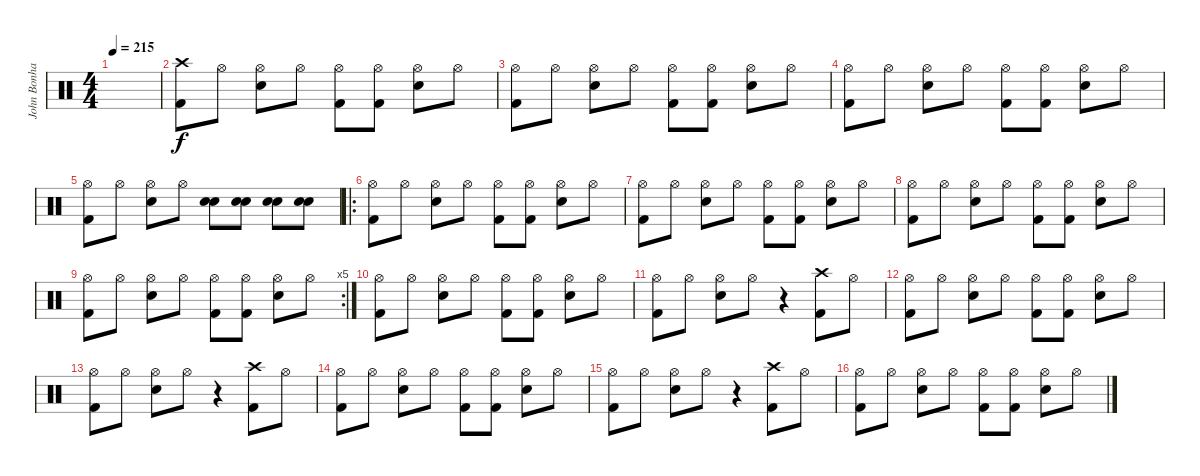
\track ("John Bonham" "John Bonha") {instrument percussion}
\staff {score}
\articulation defaults
\ts (4 4)
\tempo 215
\clef neutral
\ks c
|
("Crash high (hit)" "Kick (hit) 2").8 "Hi-Hat (open)".8 ("Hi-Hat (open)" "Snare (hit) 2").8 "Hi-Hat (open)".8 ("Hi-Hat (open)" "Kick (hit) 2").8 ("Hi-Hat (open)" "Kick (hit) 2").8 ("Hi-Hat (open)" "Snare (hit) 2").8 "Hi-Hat (open)".8 |
("Hi-Hat (open)" "Kick (hit) 2").8 "Hi-Hat (open)".8 ("Hi-Hat (open)" "Snare (hit) 2").8 "Hi-Hat (open)".8 ("Hi-Hat (open)" "Kick (hit) 2").8 ("Hi-Hat (open)" "Kick (hit) 2").8 ("Hi-Hat (open)" "Snare (hit) 2").8 "Hi-Hat (open)".8 |
("Hi-Hat (open)" "Kick (hit) 2").8 "Hi-Hat (open)".8 ("Hi-Hat (open)" "Snare (hit) 2").8 "Hi-Hat (open)".8 ("Hi-Hat (open)" "Kick (hit) 2").8 ("Hi-Hat (open)" "Kick (hit) 2").8 ("Hi-Hat (open)" "Snare (hit) 2").8 "Hi-Hat (open)".8 |
("Hi-Hat (open)" "Kick (hit) 2").8 "Hi-Hat (open)".8 ("Hi-Hat (open)" "Snare (hit) 2").8 "Hi-Hat (open)".8 ("Snare (hit) 2" "Electric Snare (hit)").8 ("Snare (hit) 2" "Electric Snare (hit)").8 ("Snare (hit) 2" "Electric Snare (hit)").8 ("Snare (hit) 2" "Electric Snare (hit)").8 |
\ro
("Hi-Hat (open)" "Kick (hit) 2").8 "Hi-Hat (open)".8 ("Hi-Hat (open)" "Snare (hit) 2").8 "Hi-Hat (open)".8 ("Hi-Hat (open)" "Kick (hit) 2").8 ("Hi-Hat (open)" "Kick (hit) 2").8 ("Hi-Hat (open)" "Snare (hit) 2").8 "Hi-Hat (open)".8 |
("Hi-Hat (open)" "Kick (hit) 2").8 "Hi-Hat (open)".8 ("Hi-Hat (open)" "Snare (hit) 2").8 "Hi-Hat (open)".8 ("Hi-Hat (open)" "Kick (hit) 2").8 ("Hi-Hat (open)" "Kick (hit) 2").8 ("Hi-Hat (open)" "Snare (hit) 2").8 "Hi-Hat (open)".8 |
("Hi-Hat (open)" "Kick (hit) 2").8 "Hi-Hat (open)".8 ("Hi-Hat (open)" "Snare (hit) 2").8 "Hi-Hat (open)".8 ("Hi-Hat (open)" "Kick (hit) 2").8 ("Hi-Hat (open)" "Kick (hit) 2").8 ("Hi-Hat (open)" "Snare (hit) 2").8 "Hi-Hat (open)".8 |
\rc 5
("Hi-Hat (open)" "Kick (hit) 2").8 "Hi-Hat (open)".8 ("Hi-Hat (open)" "Snare (hit) 2").8 "Hi-Hat (open)".8 ("Hi-Hat (open)" "Kick (hit) 2").8 ("Hi-Hat (open)" "Kick (hit) 2").8 ("Hi-Hat (open)" "Snare (hit) 2").8 "Hi-Hat (open)".8 |
("Hi-Hat (open)" "Kick (hit) 2").8 "Hi-Hat (open)".8 ("Hi-Hat (open)" "Snare (hit) 2").8 "Hi-Hat (open)".8 ("Hi-Hat (open)" "Kick (hit) 2").8 ("Hi-Hat (open)" "Kick (hit) 2").8 ("Hi-Hat (open)" "Snare (hit) 2").8 "Hi-Hat (open)".8 |
("Hi-Hat (open)" "Kick (hit) 2").8 "Hi-Hat (open)".8 ("Hi-Hat (open)" "Snare (hit) 2").8 "Hi-Hat (open)".8 r.4 ("Crash high (hit)" "Kick (hit) 2").8 "Hi-Hat (open)".8 |
("Hi-Hat (open)" "Kick (hit) 2").8 "Hi-Hat (open)".8 ("Hi-Hat (open)" "Snare (hit) 2").8 "Hi-Hat (open)".8 ("Hi-Hat (open)" "Kick (hit) 2").8 ("Hi-Hat (open)" "Kick (hit) 2").8 ("Hi-Hat (open)" "Snare (hit) 2").8 "Hi-Hat (open)".8 |
("Hi-Hat (open)" "Kick (hit) 2").8 "Hi-Hat (open)".8 ("Hi-Hat (open)" "Snare (hit) 2").8 "Hi-Hat (open)".8 r.4 ("Crash high (hit)" "Kick (hit) 2").8 "Hi-Hat (open)".8 |
("Hi-Hat (open)" "Kick (hit) 2").8 "Hi-Hat (open)".8 ("Hi-Hat (open)" "Snare (hit) 2").8 "Hi-Hat (open)".8 ("Hi-Hat (open)" "Kick (hit) 2").8 ("Hi-Hat (open)" "Kick (hit) 2").8 ("Hi-Hat (open)" "Snare (hit) 2").8 "Hi-Hat (open)".8 |
("Hi-Hat (open)" "Kick (hit) 2").8 "Hi-Hat (open)".8 ("Hi-Hat (open)" "Snare (hit) 2").8 "Hi-Hat (open)".8 r.4 ("Crash high (hit)" "Kick (hit) 2").8 "Hi-Hat (open)".8 |
("Hi-Hat (open)" "Kick (hit) 2").8 "Hi-Hat (open)".8 ("Hi-Hat (open)" "Snare (hit) 2").8 "Hi-Hat (open)".8 ("Hi-Hat (open)" "Kick (hit) 2").8 ("Hi-Hat (open)" "Kick (hit) 2").8 ("Hi-Hat (open)" "Snare (hit) 2").8 "Hi-Hat (open)".8
